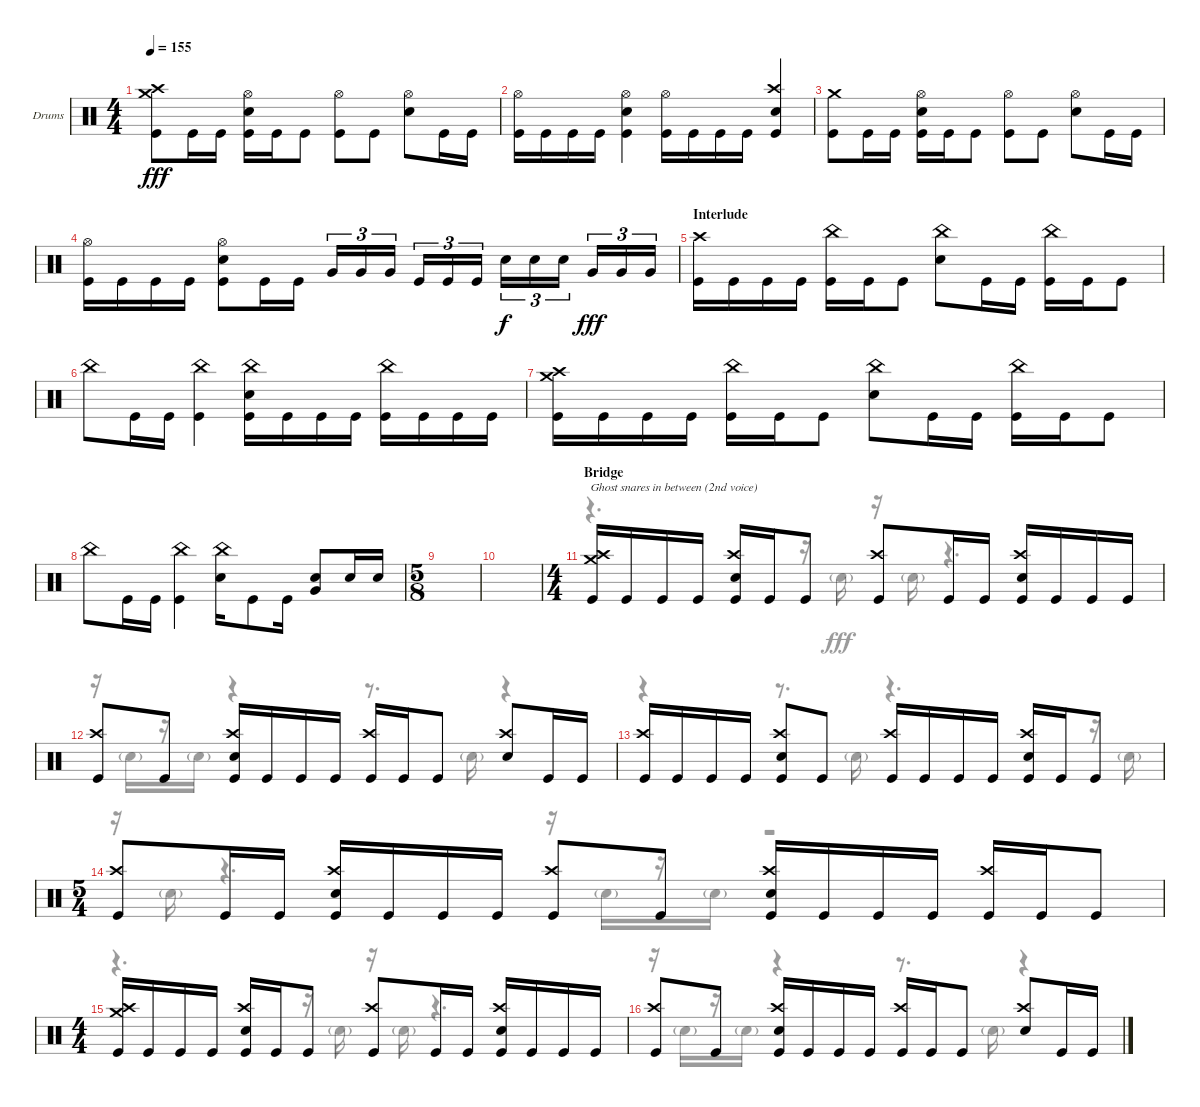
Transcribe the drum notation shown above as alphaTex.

\defaultSystemsLayout 4
\bracketExtendMode groupsimilarinstruments
\firstSystemTrackNameOrientation horizontal
\otherSystemsTrackNameOrientation horizontal
\track ("Alex Rudinger" "Drums") {instrument percussion}
\staff {score}
\articulation defaults
\voice
\ts (4 4)
\tempo 155
\clef neutral
\ks c
("Kick (hit)" "Crash high (hit)" "Crash medium (hit)").8{dy fff} "Kick (hit)".16 "Kick (hit)".16 ("Kick (hit)" "Snare (hit) 2" "Hi-Hat (open)").16 "Kick (hit)".16 "Kick (hit)".8 ("Kick (hit)" "Hi-Hat (open)").8 "Kick (hit)".8 ("Snare (hit) 2" "Hi-Hat (open)").8 "Kick (hit)".16 "Kick (hit)".16 |
("Kick (hit)" "Hi-Hat (open)").16 "Kick (hit)".16 "Kick (hit)".16 "Kick (hit)".16 ("Kick (hit)" "Snare (hit) 2" "Hi-Hat (open)").4 ("Kick (hit)" "Hi-Hat (open)").16 "Kick (hit)".16 "Kick (hit)".16 "Kick (hit)".16 ("Kick (hit)" "Snare (hit) 2" "Crash high (hit)").4 |
("Kick (hit)" "Crash medium (hit)").8 "Kick (hit)".16 "Kick (hit)".16 ("Kick (hit)" "Snare (hit) 2" "Hi-Hat (open)").16 "Kick (hit)".16 "Kick (hit)".8 ("Kick (hit)" "Hi-Hat (open)").8 "Kick (hit)".8 ("Snare (hit) 2" "Hi-Hat (open)").8 "Kick (hit)".16 "Kick (hit)".16 |
("Kick (hit)" "Hi-Hat (open)").16 "Kick (hit)".16 "Kick (hit)".16 "Kick (hit)".16 ("Kick (hit)" "Snare (hit) 2" "Hi-Hat (open)").8 "Kick (hit)".16 "Kick (hit)".16 "Very Low Tom (hit)".16{tu (3 2)} "Very Low Tom (hit)".16{tu (3 2)} "Very Low Tom (hit)".16{tu (3 2)} "Kick (hit)".16{tu (3 2)} "Kick (hit)".16{tu (3 2)} "Kick (hit)".16{tu (3 2)} "Snare (hit) 2".16{tu (3 2) dy f} "Snare (hit) 2".16{tu (3 2)} "Snare (hit) 2".16{tu (3 2)} "Very Low Tom (hit)".16{tu (3 2) dy fff} "Very Low Tom (hit)".16{tu (3 2)} "Very Low Tom (hit)".16{tu (3 2)} |
\section ("" "Interlude")
("Kick (hit)" "Crash high (hit)").16 "Kick (hit)".16 "Kick (hit)".16 "Kick (hit)".16 ("Kick (hit)" "China (hit)").16 "Kick (hit)".16 "Kick (hit)".8 ("Snare (hit) 2" "China (hit)").8 "Kick (hit)".16 "Kick (hit)".16 ("Kick (hit)" "China (hit)").16 "Kick (hit)".16 "Kick (hit)".8 |
"China (hit)".8 "Kick (hit)".16 "Kick (hit)".16 ("Kick (hit)" "China (hit)").4 ("Kick (hit)" "Snare (hit) 2" "China (hit)").16 "Kick (hit)".16 "Kick (hit)".16 "Kick (hit)".16 ("Kick (hit)" "China (hit)").16 "Kick (hit)".16 "Kick (hit)".16 "Kick (hit)".16 |
("Kick (hit)" "Crash high (hit)" "Crash medium (hit)").16 "Kick (hit)".16 "Kick (hit)".16 "Kick (hit)".16 ("Kick (hit)" "China (hit)").16 "Kick (hit)".16 "Kick (hit)".8 ("Snare (hit) 2" "China (hit)").8 "Kick (hit)".16 "Kick (hit)".16 ("Kick (hit)" "China (hit)").16 "Kick (hit)".16 "Kick (hit)".8 |
"China (hit)".8 "Kick (hit)".16 "Kick (hit)".16 ("Kick (hit)" "China (hit)").4 ("Snare (hit) 2" "China (hit)").16 "Kick (hit)".8 "Kick (hit)".16 ("Snare (hit) 2" "Very Low Tom (hit)").8 "Snare (hit) 2".16 "Snare (hit) 2".16 |
\ts (5 8)
|
|
\ts (4 4)
\section ("" "Bridge")
("Kick (hit)" "Crash high (hit)" "Crash medium (hit)").16{txt "Ghost snares in between (2nd voice)"} "Kick (hit)".16 "Kick (hit)".16 "Kick (hit)".16 ("Snare (hit) 2" "Kick (hit)" "Crash high (hit)").16 "Kick (hit)".16 "Kick (hit)".8 ("Kick (hit)" "Crash high (hit)").8 "Kick (hit)".16 "Kick (hit)".16 ("Snare (hit) 2" "Kick (hit)" "Crash high (hit)").16 "Kick (hit)".16 "Kick (hit)".16 "Kick (hit)".16 |
("Kick (hit)" "Crash high (hit)").8 "Kick (hit)".8 ("Snare (hit) 2" "Kick (hit)" "Crash high (hit)").16 "Kick (hit)".16 "Kick (hit)".16 "Kick (hit)".16 ("Kick (hit)" "Crash high (hit)").16 "Kick (hit)".16 "Kick (hit)".8 ("Snare (hit) 2" "Crash high (hit)").8 "Kick (hit)".16 "Kick (hit)".16 |
("Kick (hit)" "Crash high (hit)").16 "Kick (hit)".16 "Kick (hit)".16 "Kick (hit)".16 ("Snare (hit) 2" "Kick (hit)" "Crash high (hit)").8 "Kick (hit)".8 ("Kick (hit)" "Crash high (hit)").16 "Kick (hit)".16 "Kick (hit)".16 "Kick (hit)".16 ("Snare (hit) 2" "Kick (hit)" "Crash high (hit)").16 "Kick (hit)".16 "Kick (hit)".8 |
\ts (5 4)
("Kick (hit)" "Crash high (hit)").8 "Kick (hit)".16 "Kick (hit)".16 ("Snare (hit) 2" "Kick (hit)" "Crash high (hit)").16 "Kick (hit)".16 "Kick (hit)".16 "Kick (hit)".16 ("Kick (hit)" "Crash high (hit)").8 "Kick (hit)".8 ("Snare (hit) 2" "Kick (hit)" "Crash high (hit)").16 "Kick (hit)".16 "Kick (hit)".16 "Kick (hit)".16 ("Kick (hit)" "Crash high (hit)").16 "Kick (hit)".16 "Kick (hit)".8 |
\ts (4 4)
("Kick (hit)" "Crash high (hit)" "Crash medium (hit)").16 "Kick (hit)".16 "Kick (hit)".16 "Kick (hit)".16 ("Snare (hit) 2" "Kick (hit)" "Crash high (hit)").16 "Kick (hit)".16 "Kick (hit)".8 ("Kick (hit)" "Crash high (hit)").8 "Kick (hit)".16 "Kick (hit)".16 ("Snare (hit) 2" "Kick (hit)" "Crash high (hit)").16 "Kick (hit)".16 "Kick (hit)".16 "Kick (hit)".16 |
("Kick (hit)" "Crash high (hit)").8 "Kick (hit)".8 ("Snare (hit) 2" "Kick (hit)" "Crash high (hit)").16 "Kick (hit)".16 "Kick (hit)".16 "Kick (hit)".16 ("Kick (hit)" "Crash high (hit)").16 "Kick (hit)".16 "Kick (hit)".8 ("Snare (hit) 2" "Crash high (hit)").8 "Kick (hit)".16 "Kick (hit)".16
\voice
\clef neutral
\ottava regular
\simile none
\ks c
|
|
|
|
|
|
|
|
|
|
r.4{d} r.16 "Snare (hit) 2"{g}.16 r.16 "Snare (hit) 2"{g}.16 r.4{d} |
r.16 "Snare (hit) 2"{g}.16 r.16 "Snare (hit) 2"{g}.16 r.4 r.8{d} "Snare (hit) 2"{g}.16 r.4 |
r.4 r.8{d} "Snare (hit) 2"{g}.16 r.4{d} r.16 "Snare (hit) 2"{g}.16 |
r.16 "Snare (hit) 2"{g}.16 r.4{d} r.16 "Snare (hit) 2"{g}.16 r.16 "Snare (hit) 2"{g}.16 r.2 |
r.4{d} r.16 "Snare (hit) 2"{g}.16 r.16 "Snare (hit) 2"{g}.16 r.4{d} |
r.16 "Snare (hit) 2"{g}.16 r.16 "Snare (hit) 2"{g}.16 r.4 r.8{d} "Snare (hit) 2"{g}.16 r.4
